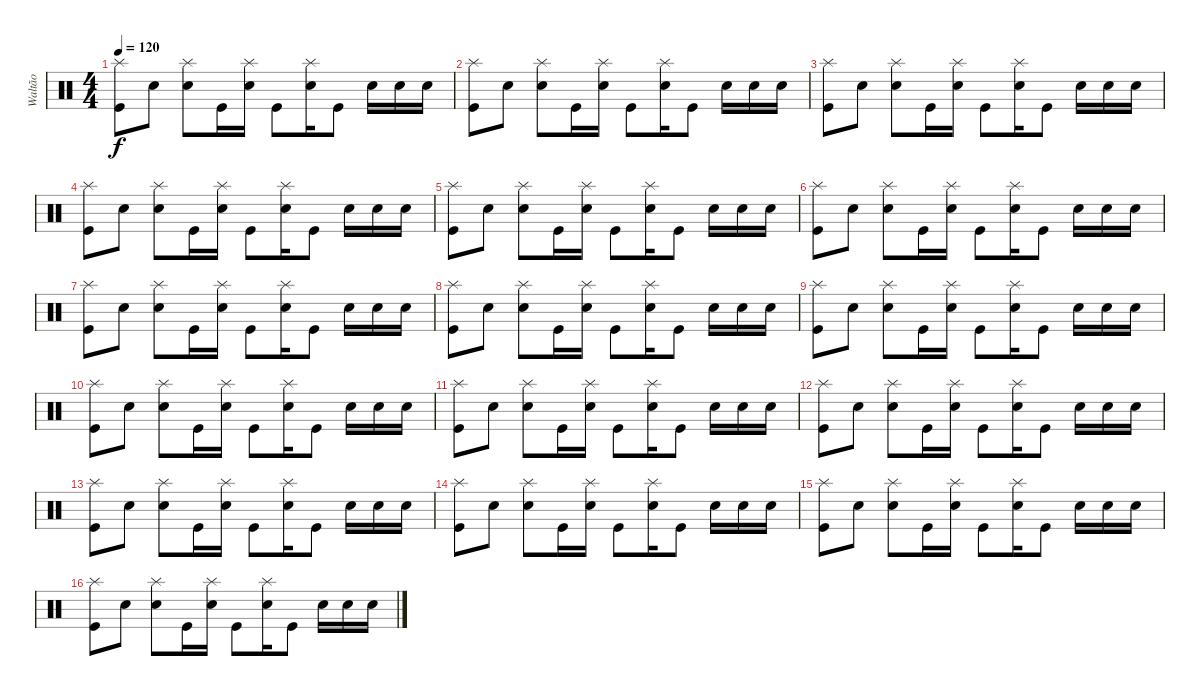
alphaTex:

\track ("Waltão" "Waltão") {instrument percussion}
\staff {score}
\articulation defaults
\ts (4 4)
\tempo 120
\clef neutral
\ks c
("Splash (hit)" "Kick (hit)").8{dy f} "Electric Snare (hit)".8 ("Splash (hit)" "Electric Snare (hit)").8 "Kick (hit)".16 ("Splash (hit)" "Electric Snare (hit)").16 "Kick (hit)".8 ("Splash (hit)" "Electric Snare (hit)").16 "Kick (hit)".8 "Electric Snare (hit)".16 "Electric Snare (hit)".16 "Electric Snare (hit)".16 |
("Splash (hit)" "Kick (hit)").8 "Electric Snare (hit)".8 ("Splash (hit)" "Electric Snare (hit)").8 "Kick (hit)".16 ("Splash (hit)" "Electric Snare (hit)").16 "Kick (hit)".8 ("Splash (hit)" "Electric Snare (hit)").16 "Kick (hit)".8 "Electric Snare (hit)".16 "Electric Snare (hit)".16 "Electric Snare (hit)".16 |
("Splash (hit)" "Kick (hit)").8 "Electric Snare (hit)".8 ("Splash (hit)" "Electric Snare (hit)").8 "Kick (hit)".16 ("Splash (hit)" "Electric Snare (hit)").16 "Kick (hit)".8 ("Splash (hit)" "Electric Snare (hit)").16 "Kick (hit)".8 "Electric Snare (hit)".16 "Electric Snare (hit)".16 "Electric Snare (hit)".16 |
("Splash (hit)" "Kick (hit)").8 "Electric Snare (hit)".8 ("Splash (hit)" "Electric Snare (hit)").8 "Kick (hit)".16 ("Splash (hit)" "Electric Snare (hit)").16 "Kick (hit)".8 ("Splash (hit)" "Electric Snare (hit)").16 "Kick (hit)".8 "Electric Snare (hit)".16 "Electric Snare (hit)".16 "Electric Snare (hit)".16 |
("Splash (hit)" "Kick (hit)").8 "Electric Snare (hit)".8 ("Splash (hit)" "Electric Snare (hit)").8 "Kick (hit)".16 ("Splash (hit)" "Electric Snare (hit)").16 "Kick (hit)".8 ("Splash (hit)" "Electric Snare (hit)").16 "Kick (hit)".8 "Electric Snare (hit)".16 "Electric Snare (hit)".16 "Electric Snare (hit)".16 |
("Splash (hit)" "Kick (hit)").8 "Electric Snare (hit)".8 ("Splash (hit)" "Electric Snare (hit)").8 "Kick (hit)".16 ("Splash (hit)" "Electric Snare (hit)").16 "Kick (hit)".8 ("Splash (hit)" "Electric Snare (hit)").16 "Kick (hit)".8 "Electric Snare (hit)".16 "Electric Snare (hit)".16 "Electric Snare (hit)".16 |
("Splash (hit)" "Kick (hit)").8 "Electric Snare (hit)".8 ("Splash (hit)" "Electric Snare (hit)").8 "Kick (hit)".16 ("Splash (hit)" "Electric Snare (hit)").16 "Kick (hit)".8 ("Splash (hit)" "Electric Snare (hit)").16 "Kick (hit)".8 "Electric Snare (hit)".16 "Electric Snare (hit)".16 "Electric Snare (hit)".16 |
("Splash (hit)" "Kick (hit)").8 "Electric Snare (hit)".8 ("Splash (hit)" "Electric Snare (hit)").8 "Kick (hit)".16 ("Splash (hit)" "Electric Snare (hit)").16 "Kick (hit)".8 ("Splash (hit)" "Electric Snare (hit)").16 "Kick (hit)".8 "Electric Snare (hit)".16 "Electric Snare (hit)".16 "Electric Snare (hit)".16 |
("Splash (hit)" "Kick (hit)").8 "Electric Snare (hit)".8 ("Splash (hit)" "Electric Snare (hit)").8 "Kick (hit)".16 ("Splash (hit)" "Electric Snare (hit)").16 "Kick (hit)".8 ("Splash (hit)" "Electric Snare (hit)").16 "Kick (hit)".8 "Electric Snare (hit)".16 "Electric Snare (hit)".16 "Electric Snare (hit)".16 |
("Splash (hit)" "Kick (hit)").8 "Electric Snare (hit)".8 ("Splash (hit)" "Electric Snare (hit)").8 "Kick (hit)".16 ("Splash (hit)" "Electric Snare (hit)").16 "Kick (hit)".8 ("Splash (hit)" "Electric Snare (hit)").16 "Kick (hit)".8 "Electric Snare (hit)".16 "Electric Snare (hit)".16 "Electric Snare (hit)".16 |
("Splash (hit)" "Kick (hit)").8 "Electric Snare (hit)".8 ("Splash (hit)" "Electric Snare (hit)").8 "Kick (hit)".16 ("Splash (hit)" "Electric Snare (hit)").16 "Kick (hit)".8 ("Splash (hit)" "Electric Snare (hit)").16 "Kick (hit)".8 "Electric Snare (hit)".16 "Electric Snare (hit)".16 "Electric Snare (hit)".16 |
("Splash (hit)" "Kick (hit)").8 "Electric Snare (hit)".8 ("Splash (hit)" "Electric Snare (hit)").8 "Kick (hit)".16 ("Splash (hit)" "Electric Snare (hit)").16 "Kick (hit)".8 ("Splash (hit)" "Electric Snare (hit)").16 "Kick (hit)".8 "Electric Snare (hit)".16 "Electric Snare (hit)".16 "Electric Snare (hit)".16 |
("Splash (hit)" "Kick (hit)").8 "Electric Snare (hit)".8 ("Splash (hit)" "Electric Snare (hit)").8 "Kick (hit)".16 ("Splash (hit)" "Electric Snare (hit)").16 "Kick (hit)".8 ("Splash (hit)" "Electric Snare (hit)").16 "Kick (hit)".8 "Electric Snare (hit)".16 "Electric Snare (hit)".16 "Electric Snare (hit)".16 |
("Splash (hit)" "Kick (hit)").8 "Electric Snare (hit)".8 ("Splash (hit)" "Electric Snare (hit)").8 "Kick (hit)".16 ("Splash (hit)" "Electric Snare (hit)").16 "Kick (hit)".8 ("Splash (hit)" "Electric Snare (hit)").16 "Kick (hit)".8 "Electric Snare (hit)".16 "Electric Snare (hit)".16 "Electric Snare (hit)".16 |
("Splash (hit)" "Kick (hit)").8 "Electric Snare (hit)".8 ("Splash (hit)" "Electric Snare (hit)").8 "Kick (hit)".16 ("Splash (hit)" "Electric Snare (hit)").16 "Kick (hit)".8 ("Splash (hit)" "Electric Snare (hit)").16 "Kick (hit)".8 "Electric Snare (hit)".16 "Electric Snare (hit)".16 "Electric Snare (hit)".16 |
("Splash (hit)" "Kick (hit)").8 "Electric Snare (hit)".8 ("Splash (hit)" "Electric Snare (hit)").8 "Kick (hit)".16 ("Splash (hit)" "Electric Snare (hit)").16 "Kick (hit)".8 ("Splash (hit)" "Electric Snare (hit)").16 "Kick (hit)".8 "Electric Snare (hit)".16 "Electric Snare (hit)".16 "Electric Snare (hit)".16
